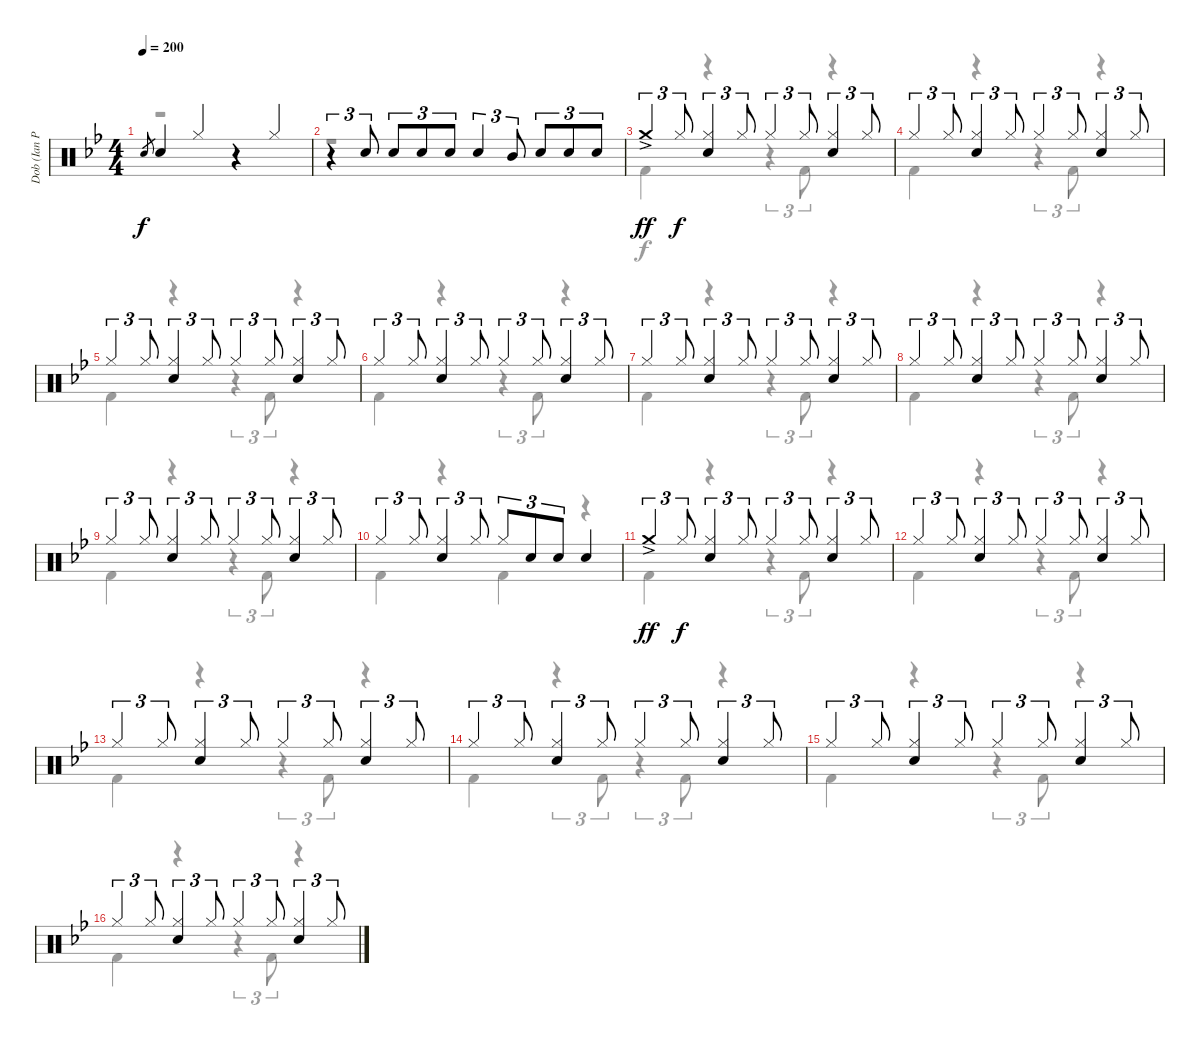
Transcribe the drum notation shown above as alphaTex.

\track ("Dob (Ian Paice)" "Dob (Ian P") {instrument percussion}
\staff {score}
\articulation defaults
\voice
\ts (4 4)
\tempo 200
\clef neutral
\ks bb "Electric Snare (hit)".8{gr dy f} "Electric Snare (hit)".4 "Hi-Hat (closed)".4
r.4 "Hi-Hat (closed)".4 |
r.4{tu (3 2)} "Electric Snare (hit)".8{tu (3 2)} "Electric Snare (hit)".8{tu (3 2)} "Electric Snare (hit)".8{tu (3 2)} "Electric Snare (hit)".8{tu (3 2)} "Electric Snare (hit)".4{tu (3 2)} "Mid Tom (hit)".8{tu (3 2)} "Electric Snare (hit)".8{tu (3 2)} "Electric Snare (hit)".8{tu (3 2)} "Electric Snare (hit)".8{tu (3 2)} |
"Crash medium (hit)"{ac}.4{tu (3 2) dy ff} "Hi-Hat (closed)".8{tu (3 2) dy f} ("Hi-Hat (closed)" "Electric Snare (hit)").4{tu (3 2)} "Hi-Hat (closed)".8{tu (3 2)} "Hi-Hat (closed)".4{tu (3 2)} "Hi-Hat (closed)".8{tu (3 2)} ("Hi-Hat (closed)" "Electric Snare (hit)").4{tu (3 2)} "Hi-Hat (closed)".8{tu (3 2)} |
"Hi-Hat (closed)".4{tu (3 2)} "Hi-Hat (closed)".8{tu (3 2)} ("Hi-Hat (closed)" "Electric Snare (hit)").4{tu (3 2)} "Hi-Hat (closed)".8{tu (3 2)} "Hi-Hat (closed)".4{tu (3 2)} "Hi-Hat (closed)".8{tu (3 2)} ("Hi-Hat (closed)" "Electric Snare (hit)").4{tu (3 2)} "Hi-Hat (closed)".8{tu (3 2)} |
"Hi-Hat (closed)".4{tu (3 2)} "Hi-Hat (closed)".8{tu (3 2)} ("Hi-Hat (closed)" "Electric Snare (hit)").4{tu (3 2)} "Hi-Hat (closed)".8{tu (3 2)} "Hi-Hat (closed)".4{tu (3 2)} "Hi-Hat (closed)".8{tu (3 2)} ("Hi-Hat (closed)" "Electric Snare (hit)").4{tu (3 2)} "Hi-Hat (closed)".8{tu (3 2)} |
"Hi-Hat (closed)".4{tu (3 2)} "Hi-Hat (closed)".8{tu (3 2)} ("Hi-Hat (closed)" "Electric Snare (hit)").4{tu (3 2)} "Hi-Hat (closed)".8{tu (3 2)} "Hi-Hat (closed)".4{tu (3 2)} "Hi-Hat (closed)".8{tu (3 2)} ("Hi-Hat (closed)" "Electric Snare (hit)").4{tu (3 2)} "Hi-Hat (closed)".8{tu (3 2)} |
"Hi-Hat (closed)".4{tu (3 2)} "Hi-Hat (closed)".8{tu (3 2)} ("Hi-Hat (closed)" "Electric Snare (hit)").4{tu (3 2)} "Hi-Hat (closed)".8{tu (3 2)} "Hi-Hat (closed)".4{tu (3 2)} "Hi-Hat (closed)".8{tu (3 2)} ("Hi-Hat (closed)" "Electric Snare (hit)").4{tu (3 2)} "Hi-Hat (closed)".8{tu (3 2)} |
"Hi-Hat (closed)".4{tu (3 2)} "Hi-Hat (closed)".8{tu (3 2)} ("Hi-Hat (closed)" "Electric Snare (hit)").4{tu (3 2)} "Hi-Hat (closed)".8{tu (3 2)} "Hi-Hat (closed)".4{tu (3 2)} "Hi-Hat (closed)".8{tu (3 2)} ("Hi-Hat (closed)" "Electric Snare (hit)").4{tu (3 2)} "Hi-Hat (closed)".8{tu (3 2)} |
"Hi-Hat (closed)".4{tu (3 2)} "Hi-Hat (closed)".8{tu (3 2)} ("Hi-Hat (closed)" "Electric Snare (hit)").4{tu (3 2)} "Hi-Hat (closed)".8{tu (3 2)} "Hi-Hat (closed)".4{tu (3 2)} "Hi-Hat (closed)".8{tu (3 2)} ("Hi-Hat (closed)" "Electric Snare (hit)").4{tu (3 2)} "Hi-Hat (closed)".8{tu (3 2)} |
"Hi-Hat (closed)".4{tu (3 2)} "Hi-Hat (closed)".8{tu (3 2)} ("Hi-Hat (closed)" "Electric Snare (hit)").4{tu (3 2)} "Hi-Hat (closed)".8{tu (3 2)} "Hi-Hat (closed)".8{tu (3 2)} "Electric Snare (hit)".8{tu (3 2)} "Electric Snare (hit)".8{tu (3 2)} "Electric Snare (hit)".4 |
"Crash medium (hit)"{ac}.4{tu (3 2) dy ff} "Hi-Hat (closed)".8{tu (3 2) dy f} ("Hi-Hat (closed)" "Electric Snare (hit)").4{tu (3 2)} "Hi-Hat (closed)".8{tu (3 2)} "Hi-Hat (closed)".4{tu (3 2)} "Hi-Hat (closed)".8{tu (3 2)} ("Hi-Hat (closed)" "Electric Snare (hit)").4{tu (3 2)} "Hi-Hat (closed)".8{tu (3 2)} |
"Hi-Hat (closed)".4{tu (3 2)} "Hi-Hat (closed)".8{tu (3 2)} ("Hi-Hat (closed)" "Electric Snare (hit)").4{tu (3 2)} "Hi-Hat (closed)".8{tu (3 2)} "Hi-Hat (closed)".4{tu (3 2)} "Hi-Hat (closed)".8{tu (3 2)} ("Hi-Hat (closed)" "Electric Snare (hit)").4{tu (3 2)} "Hi-Hat (closed)".8{tu (3 2)} |
"Hi-Hat (closed)".4{tu (3 2)} "Hi-Hat (closed)".8{tu (3 2)} ("Hi-Hat (closed)" "Electric Snare (hit)").4{tu (3 2)} "Hi-Hat (closed)".8{tu (3 2)} "Hi-Hat (closed)".4{tu (3 2)} "Hi-Hat (closed)".8{tu (3 2)} ("Hi-Hat (closed)" "Electric Snare (hit)").4{tu (3 2)} "Hi-Hat (closed)".8{tu (3 2)} |
"Hi-Hat (closed)".4{tu (3 2)} "Hi-Hat (closed)".8{tu (3 2)} ("Hi-Hat (closed)" "Electric Snare (hit)").4{tu (3 2)} "Hi-Hat (closed)".8{tu (3 2)} "Hi-Hat (closed)".4{tu (3 2)} "Hi-Hat (closed)".8{tu (3 2)} ("Hi-Hat (closed)" "Electric Snare (hit)").4{tu (3 2)} "Hi-Hat (closed)".8{tu (3 2)} |
"Hi-Hat (closed)".4{tu (3 2)} "Hi-Hat (closed)".8{tu (3 2)} ("Hi-Hat (closed)" "Electric Snare (hit)").4{tu (3 2)} "Hi-Hat (closed)".8{tu (3 2)} "Hi-Hat (closed)".4{tu (3 2)} "Hi-Hat (closed)".8{tu (3 2)} ("Hi-Hat (closed)" "Electric Snare (hit)").4{tu (3 2)} "Hi-Hat (closed)".8{tu (3 2)} |
"Hi-Hat (closed)".4{tu (3 2)} "Hi-Hat (closed)".8{tu (3 2)} ("Hi-Hat (closed)" "Electric Snare (hit)").4{tu (3 2)} "Hi-Hat (closed)".8{tu (3 2)} "Hi-Hat (closed)".4{tu (3 2)} "Hi-Hat (closed)".8{tu (3 2)} ("Hi-Hat (closed)" "Electric Snare (hit)").4{tu (3 2)} "Hi-Hat (closed)".8{tu (3 2)}
\voice
\clef neutral
\ottava regular
\simile none
\ks bb
r.1{dy f} |
r.1 |
"Kick (hit) 2".4 r.4 r.4{tu (3 2)} "Kick (hit) 2".8{tu (3 2)} r.4 |
"Kick (hit) 2".4 r.4 r.4{tu (3 2)} "Kick (hit) 2".8{tu (3 2)} r.4 |
"Kick (hit) 2".4 r.4 r.4{tu (3 2)} "Kick (hit) 2".8{tu (3 2)} r.4 |
"Kick (hit) 2".4 r.4 r.4{tu (3 2)} "Kick (hit) 2".8{tu (3 2)} r.4 |
"Kick (hit) 2".4 r.4 r.4{tu (3 2)} "Kick (hit) 2".8{tu (3 2)} r.4 |
"Kick (hit) 2".4 r.4 r.4{tu (3 2)} "Kick (hit) 2".8{tu (3 2)} r.4 |
"Kick (hit) 2".4 r.4 r.4{tu (3 2)} "Kick (hit) 2".8{tu (3 2)} r.4 |
"Kick (hit) 2".4 r.4 "Kick (hit) 2".4 r.4 |
"Kick (hit) 2".4 r.4 r.4{tu (3 2)} "Kick (hit) 2".8{tu (3 2)} r.4 |
"Kick (hit) 2".4 r.4 r.4{tu (3 2)} "Kick (hit) 2".8{tu (3 2)} r.4 |
"Kick (hit) 2".4 r.4 r.4{tu (3 2)} "Kick (hit) 2".8{tu (3 2)} r.4 |
"Kick (hit) 2".4 r.4{tu (3 2)} "Kick (hit) 2".8{tu (3 2)} r.4{tu (3 2)} "Kick (hit) 2".8{tu (3 2)} r.4 |
"Kick (hit) 2".4 r.4 r.4{tu (3 2)} "Kick (hit) 2".8{tu (3 2)} r.4 |
"Kick (hit) 2".4 r.4 r.4{tu (3 2)} "Kick (hit) 2".8{tu (3 2)} r.4
